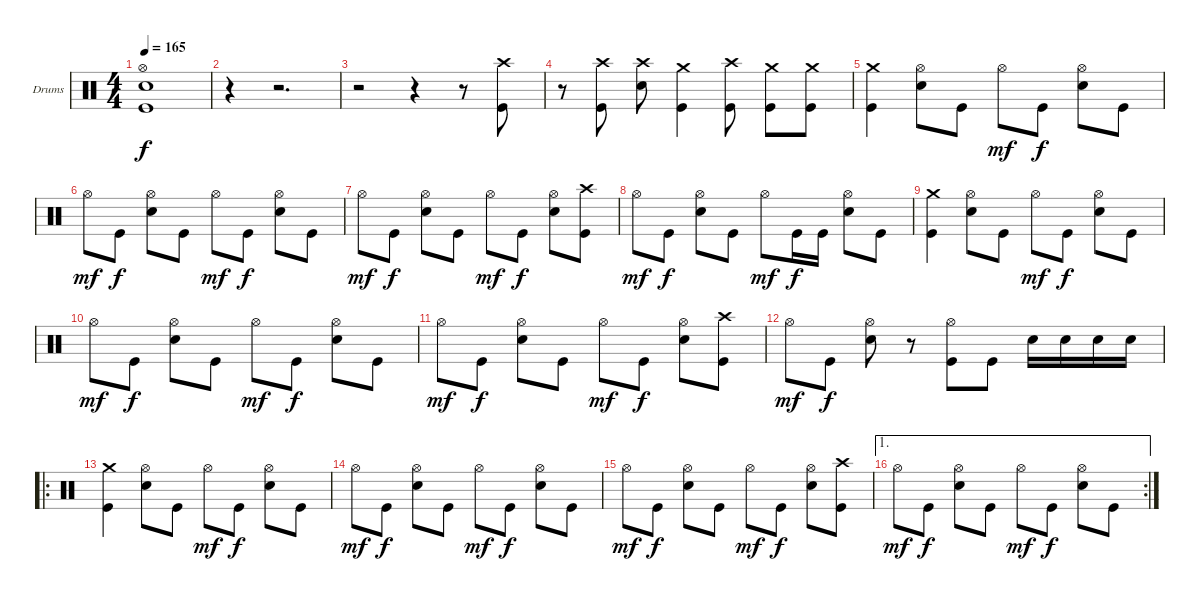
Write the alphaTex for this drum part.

\bracketExtendMode groupsimilarinstruments
\firstSystemTrackNameOrientation horizontal
\otherSystemsTrackNameOrientation horizontal
\track ("Drumkit Midi" "Drums") {instrument percussion}
\staff {score}
\articulation defaults
\ts (4 4)
\beaming (8 2 2 2 2)
\tempo 165
\clef neutral
\ks c
("Kick (hit)" "Snare (hit) 2" "Hi-Hat (open)").1{dy f} |
r.4 r.2{d} |
r.2 r.4 r.8 ("Kick (hit)" "Crash high (hit)").8 |
r.8 ("Kick (hit)" "Crash high (hit)").8 ("Snare (hit) 2" "Crash high (hit)").8 ("Kick (hit)" "Crash medium (hit)").4 ("Kick (hit)" "Crash high (hit)").8 ("Kick (hit)" "Crash medium (hit)").8 ("Kick (hit)" "Crash medium (hit)").8 |
("Kick (hit)" "Crash medium (hit)").4 ("Snare (hit) 2" "Hi-Hat (open)").8 "Kick (hit)".8 "Hi-Hat (open)".8{dy mf} "Kick (hit)".8{dy f} ("Snare (hit) 2" "Hi-Hat (open)").8 "Kick (hit)".8 |
"Hi-Hat (open)".8{dy mf} "Kick (hit)".8{dy f} ("Snare (hit) 2" "Hi-Hat (open)").8 "Kick (hit)".8 "Hi-Hat (open)".8{dy mf} "Kick (hit)".8{dy f} ("Snare (hit) 2" "Hi-Hat (open)").8 "Kick (hit)".8 |
"Hi-Hat (open)".8{dy mf} "Kick (hit)".8{dy f} ("Snare (hit) 2" "Hi-Hat (open)").8 "Kick (hit)".8 "Hi-Hat (open)".8{dy mf} "Kick (hit)".8{dy f} ("Snare (hit) 2" "Hi-Hat (open)").8 ("Kick (hit)" "Crash high (hit)").8 |
"Hi-Hat (open)".8{dy mf} "Kick (hit)".8{dy f} ("Snare (hit) 2" "Hi-Hat (open)").8 "Kick (hit)".8 "Hi-Hat (open)".8{dy mf} "Kick (hit)".16{dy f} "Kick (hit)".16 ("Snare (hit) 2" "Hi-Hat (open)").8 "Kick (hit)".8 |
("Kick (hit)" "Crash medium (hit)").4 ("Snare (hit) 2" "Hi-Hat (open)").8 "Kick (hit)".8 "Hi-Hat (open)".8{dy mf} "Kick (hit)".8{dy f} ("Snare (hit) 2" "Hi-Hat (open)").8 "Kick (hit)".8 |
"Hi-Hat (open)".8{dy mf} "Kick (hit)".8{dy f} ("Snare (hit) 2" "Hi-Hat (open)").8 "Kick (hit)".8 "Hi-Hat (open)".8{dy mf} "Kick (hit)".8{dy f} ("Snare (hit) 2" "Hi-Hat (open)").8 "Kick (hit)".8 |
"Hi-Hat (open)".8{dy mf} "Kick (hit)".8{dy f} ("Snare (hit) 2" "Hi-Hat (open)").8 "Kick (hit)".8 "Hi-Hat (open)".8{dy mf} "Kick (hit)".8{dy f} ("Snare (hit) 2" "Hi-Hat (open)").8 ("Kick (hit)" "Crash high (hit)").8 |
"Hi-Hat (open)".8{dy mf} "Kick (hit)".8{dy f} ("Snare (hit) 2" "Hi-Hat (open)").8 r.8 ("Kick (hit)" "Hi-Hat (open)").8 "Kick (hit)".8 "Snare (hit) 2".16 "Snare (hit) 2".16 "Snare (hit) 2".16 "Snare (hit) 2".16 |
\ro
("Kick (hit)" "Crash medium (hit)").4 ("Snare (hit) 2" "Hi-Hat (open)").8 "Kick (hit)".8 "Hi-Hat (open)".8{dy mf} "Kick (hit)".8{dy f} ("Snare (hit) 2" "Hi-Hat (open)").8 "Kick (hit)".8 |
"Hi-Hat (open)".8{dy mf} "Kick (hit)".8{dy f} ("Snare (hit) 2" "Hi-Hat (open)").8 "Kick (hit)".8 "Hi-Hat (open)".8{dy mf} "Kick (hit)".8{dy f} ("Snare (hit) 2" "Hi-Hat (open)").8 "Kick (hit)".8 |
"Hi-Hat (open)".8{dy mf} "Kick (hit)".8{dy f} ("Snare (hit) 2" "Hi-Hat (open)").8 "Kick (hit)".8 "Hi-Hat (open)".8{dy mf} "Kick (hit)".8{dy f} ("Snare (hit) 2" "Hi-Hat (open)").8 ("Kick (hit)" "Crash high (hit)").8 |
\ae 1
\rc 2 "Hi-Hat (open)".8{dy mf} "Kick (hit)".8{dy f}
("Snare (hit) 2" "Hi-Hat (open)").8 "Kick (hit)".8 "Hi-Hat (open)".8{dy mf} "Kick (hit)".8{dy f} ("Snare (hit) 2" "Hi-Hat (open)").8 "Kick (hit)".8
